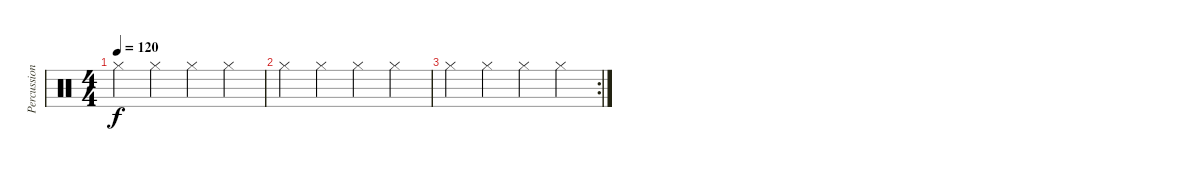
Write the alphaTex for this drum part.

\track ("Percussioni" "Percussion") {instrument percussion}
\staff {score}
\articulation defaults
\ts (4 4)
\tempo 120
\clef neutral
\ks c "Hi-Hat (closed)".4{dy f} "Hi-Hat (closed)".4 "Hi-Hat (closed)".4 "Hi-Hat (closed)".4
|
"Hi-Hat (closed)".4 "Hi-Hat (closed)".4 "Hi-Hat (closed)".4 "Hi-Hat (closed)".4 |
\rc 2 "Hi-Hat (closed)".4 "Hi-Hat (closed)".4 "Hi-Hat (closed)".4 "Hi-Hat (closed)".4
